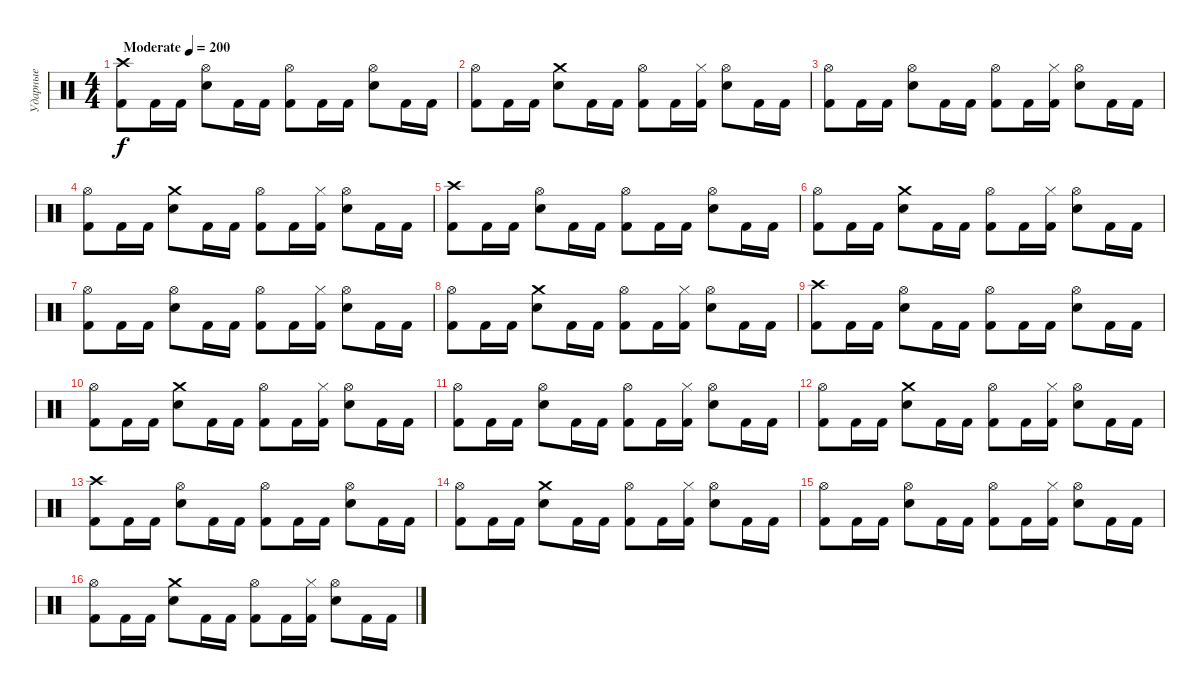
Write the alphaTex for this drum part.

\track ("Ударные" "Ударные") {instrument percussion}
\staff {score}
\articulation defaults
\ts (4 4)
\tempo (200 "Moderate")
\clef neutral
\ks c
("Crash high (hit)" "Kick (hit) 2").8{dy f} "Kick (hit) 2".16 "Kick (hit) 2".16 ("Hi-Hat (open)" "Electric Snare (hit)").8 "Kick (hit) 2".16 "Kick (hit) 2".16 ("Hi-Hat (open)" "Kick (hit) 2").8 "Kick (hit) 2".16 "Kick (hit) 2".16 ("Hi-Hat (open)" "Electric Snare (hit)").8 "Kick (hit) 2".16 "Kick (hit) 2".16 |
("Hi-Hat (open)" "Kick (hit) 2").8 "Kick (hit) 2".16 "Kick (hit) 2".16 ("Crash medium (hit)" "Electric Snare (hit)").8 "Kick (hit) 2".16 "Kick (hit) 2".16 ("Hi-Hat (open)" "Kick (hit) 2").8 "Kick (hit) 2".16 ("Hi-Hat (closed)" "Kick (hit) 2").16 ("Hi-Hat (open)" "Electric Snare (hit)").8 "Kick (hit) 2".16 "Kick (hit) 2".16 |
("Hi-Hat (open)" "Kick (hit) 2").8 "Kick (hit) 2".16 "Kick (hit) 2".16 ("Hi-Hat (open)" "Electric Snare (hit)").8 "Kick (hit) 2".16 "Kick (hit) 2".16 ("Hi-Hat (open)" "Kick (hit) 2").8 "Kick (hit) 2".16 ("Hi-Hat (closed)" "Kick (hit) 2").16 ("Hi-Hat (open)" "Electric Snare (hit)").8 "Kick (hit) 2".16 "Kick (hit) 2".16 |
("Hi-Hat (open)" "Kick (hit) 2").8 "Kick (hit) 2".16 "Kick (hit) 2".16 ("Crash medium (hit)" "Electric Snare (hit)").8 "Kick (hit) 2".16 "Kick (hit) 2".16 ("Hi-Hat (open)" "Kick (hit) 2").8 "Kick (hit) 2".16 ("Hi-Hat (closed)" "Kick (hit) 2").16 ("Hi-Hat (open)" "Electric Snare (hit)").8 "Kick (hit) 2".16 "Kick (hit) 2".16 |
("Crash high (hit)" "Kick (hit) 2").8 "Kick (hit) 2".16 "Kick (hit) 2".16 ("Hi-Hat (open)" "Electric Snare (hit)").8 "Kick (hit) 2".16 "Kick (hit) 2".16 ("Hi-Hat (open)" "Kick (hit) 2").8 "Kick (hit) 2".16 "Kick (hit) 2".16 ("Hi-Hat (open)" "Electric Snare (hit)").8 "Kick (hit) 2".16 "Kick (hit) 2".16 |
("Hi-Hat (open)" "Kick (hit) 2").8 "Kick (hit) 2".16 "Kick (hit) 2".16 ("Crash medium (hit)" "Electric Snare (hit)").8 "Kick (hit) 2".16 "Kick (hit) 2".16 ("Hi-Hat (open)" "Kick (hit) 2").8 "Kick (hit) 2".16 ("Hi-Hat (closed)" "Kick (hit) 2").16 ("Hi-Hat (open)" "Electric Snare (hit)").8 "Kick (hit) 2".16 "Kick (hit) 2".16 |
("Hi-Hat (open)" "Kick (hit) 2").8 "Kick (hit) 2".16 "Kick (hit) 2".16 ("Hi-Hat (open)" "Electric Snare (hit)").8 "Kick (hit) 2".16 "Kick (hit) 2".16 ("Hi-Hat (open)" "Kick (hit) 2").8 "Kick (hit) 2".16 ("Hi-Hat (closed)" "Kick (hit) 2").16 ("Hi-Hat (open)" "Electric Snare (hit)").8 "Kick (hit) 2".16 "Kick (hit) 2".16 |
("Hi-Hat (open)" "Kick (hit) 2").8 "Kick (hit) 2".16 "Kick (hit) 2".16 ("Crash medium (hit)" "Electric Snare (hit)").8 "Kick (hit) 2".16 "Kick (hit) 2".16 ("Hi-Hat (open)" "Kick (hit) 2").8 "Kick (hit) 2".16 ("Hi-Hat (closed)" "Kick (hit) 2").16 ("Hi-Hat (open)" "Electric Snare (hit)").8 "Kick (hit) 2".16 "Kick (hit) 2".16 |
("Crash high (hit)" "Kick (hit) 2").8 "Kick (hit) 2".16 "Kick (hit) 2".16 ("Hi-Hat (open)" "Electric Snare (hit)").8 "Kick (hit) 2".16 "Kick (hit) 2".16 ("Hi-Hat (open)" "Kick (hit) 2").8 "Kick (hit) 2".16 "Kick (hit) 2".16 ("Hi-Hat (open)" "Electric Snare (hit)").8 "Kick (hit) 2".16 "Kick (hit) 2".16 |
("Hi-Hat (open)" "Kick (hit) 2").8 "Kick (hit) 2".16 "Kick (hit) 2".16 ("Crash medium (hit)" "Electric Snare (hit)").8 "Kick (hit) 2".16 "Kick (hit) 2".16 ("Hi-Hat (open)" "Kick (hit) 2").8 "Kick (hit) 2".16 ("Hi-Hat (closed)" "Kick (hit) 2").16 ("Hi-Hat (open)" "Electric Snare (hit)").8 "Kick (hit) 2".16 "Kick (hit) 2".16 |
("Hi-Hat (open)" "Kick (hit) 2").8 "Kick (hit) 2".16 "Kick (hit) 2".16 ("Hi-Hat (open)" "Electric Snare (hit)").8 "Kick (hit) 2".16 "Kick (hit) 2".16 ("Hi-Hat (open)" "Kick (hit) 2").8 "Kick (hit) 2".16 ("Hi-Hat (closed)" "Kick (hit) 2").16 ("Hi-Hat (open)" "Electric Snare (hit)").8 "Kick (hit) 2".16 "Kick (hit) 2".16 |
("Hi-Hat (open)" "Kick (hit) 2").8 "Kick (hit) 2".16 "Kick (hit) 2".16 ("Crash medium (hit)" "Electric Snare (hit)").8 "Kick (hit) 2".16 "Kick (hit) 2".16 ("Hi-Hat (open)" "Kick (hit) 2").8 "Kick (hit) 2".16 ("Hi-Hat (closed)" "Kick (hit) 2").16 ("Hi-Hat (open)" "Electric Snare (hit)").8 "Kick (hit) 2".16 "Kick (hit) 2".16 |
("Crash high (hit)" "Kick (hit) 2").8 "Kick (hit) 2".16 "Kick (hit) 2".16 ("Hi-Hat (open)" "Electric Snare (hit)").8 "Kick (hit) 2".16 "Kick (hit) 2".16 ("Hi-Hat (open)" "Kick (hit) 2").8 "Kick (hit) 2".16 "Kick (hit) 2".16 ("Hi-Hat (open)" "Electric Snare (hit)").8 "Kick (hit) 2".16 "Kick (hit) 2".16 |
("Hi-Hat (open)" "Kick (hit) 2").8 "Kick (hit) 2".16 "Kick (hit) 2".16 ("Crash medium (hit)" "Electric Snare (hit)").8 "Kick (hit) 2".16 "Kick (hit) 2".16 ("Hi-Hat (open)" "Kick (hit) 2").8 "Kick (hit) 2".16 ("Hi-Hat (closed)" "Kick (hit) 2").16 ("Hi-Hat (open)" "Electric Snare (hit)").8 "Kick (hit) 2".16 "Kick (hit) 2".16 |
("Hi-Hat (open)" "Kick (hit) 2").8 "Kick (hit) 2".16 "Kick (hit) 2".16 ("Hi-Hat (open)" "Electric Snare (hit)").8 "Kick (hit) 2".16 "Kick (hit) 2".16 ("Hi-Hat (open)" "Kick (hit) 2").8 "Kick (hit) 2".16 ("Hi-Hat (closed)" "Kick (hit) 2").16 ("Hi-Hat (open)" "Electric Snare (hit)").8 "Kick (hit) 2".16 "Kick (hit) 2".16 |
("Hi-Hat (open)" "Kick (hit) 2").8 "Kick (hit) 2".16 "Kick (hit) 2".16 ("Crash medium (hit)" "Electric Snare (hit)").8 "Kick (hit) 2".16 "Kick (hit) 2".16 ("Hi-Hat (open)" "Kick (hit) 2").8 "Kick (hit) 2".16 ("Hi-Hat (closed)" "Kick (hit) 2").16 ("Hi-Hat (open)" "Electric Snare (hit)").8 "Kick (hit) 2".16 "Kick (hit) 2".16
